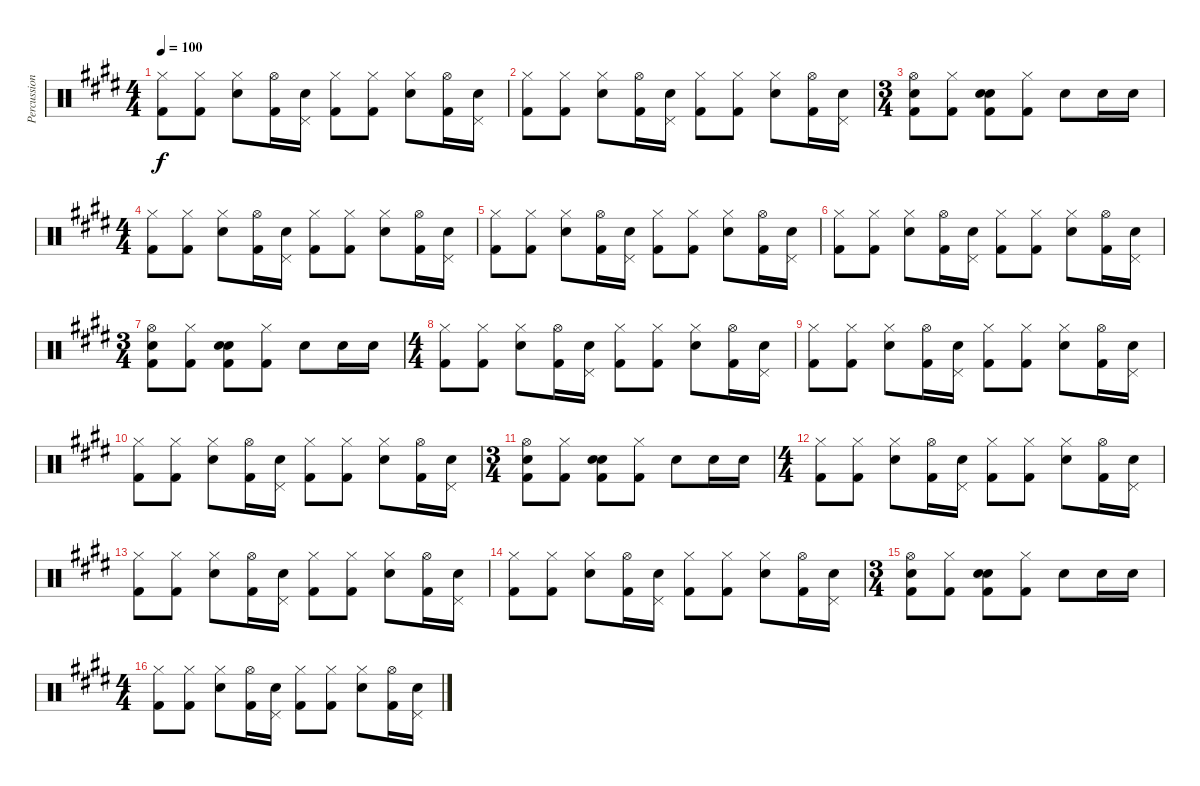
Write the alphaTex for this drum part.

\track ("Percussion" "Percussion") {instrument percussion}
\staff {score}
\articulation defaults
\ts (4 4)
\tempo 100
\clef neutral
\ks e
("Hi-Hat (closed)" "Kick (hit) 2").8{dy f} ("Hi-Hat (closed)" "Kick (hit) 2").8 ("Hi-Hat (closed)" "Electric Snare (hit)").8 ("Hi-Hat (open)" "Kick (hit) 2").16 ("Electric Snare (hit)" "Pedal Hi-Hat (hit)").16 ("Hi-Hat (closed)" "Kick (hit) 2").8 ("Hi-Hat (closed)" "Kick (hit) 2").8 ("Hi-Hat (closed)" "Electric Snare (hit)").8 ("Hi-Hat (open)" "Kick (hit) 2").16 ("Electric Snare (hit)" "Pedal Hi-Hat (hit)").16 |
("Hi-Hat (closed)" "Kick (hit) 2").8 ("Hi-Hat (closed)" "Kick (hit) 2").8 ("Hi-Hat (closed)" "Electric Snare (hit)").8 ("Hi-Hat (open)" "Kick (hit) 2").16 ("Electric Snare (hit)" "Pedal Hi-Hat (hit)").16 ("Hi-Hat (closed)" "Kick (hit) 2").8 ("Hi-Hat (closed)" "Kick (hit) 2").8 ("Hi-Hat (closed)" "Electric Snare (hit)").8 ("Hi-Hat (open)" "Kick (hit) 2").16 ("Electric Snare (hit)" "Pedal Hi-Hat (hit)").16 |
\ts (3 4)
("Hi-Hat (open)" "Electric Snare (hit)" "Kick (hit) 2").8 ("Hi-Hat (closed)" "Kick (hit) 2").8 ("Snare (hit)" "Electric Snare (hit)" "Kick (hit) 2").8 ("Hi-Hat (closed)" "Kick (hit) 2").8 "Electric Snare (hit)".8 "Electric Snare (hit)".16 "Electric Snare (hit)".16 |
\ts (4 4)
("Hi-Hat (closed)" "Kick (hit) 2").8 ("Hi-Hat (closed)" "Kick (hit) 2").8 ("Hi-Hat (closed)" "Electric Snare (hit)").8 ("Hi-Hat (open)" "Kick (hit) 2").16 ("Electric Snare (hit)" "Pedal Hi-Hat (hit)").16 ("Hi-Hat (closed)" "Kick (hit) 2").8 ("Hi-Hat (closed)" "Kick (hit) 2").8 ("Hi-Hat (closed)" "Electric Snare (hit)").8 ("Hi-Hat (open)" "Kick (hit) 2").16 ("Electric Snare (hit)" "Pedal Hi-Hat (hit)").16 |
("Hi-Hat (closed)" "Kick (hit) 2").8 ("Hi-Hat (closed)" "Kick (hit) 2").8 ("Hi-Hat (closed)" "Electric Snare (hit)").8 ("Hi-Hat (open)" "Kick (hit) 2").16 ("Electric Snare (hit)" "Pedal Hi-Hat (hit)").16 ("Hi-Hat (closed)" "Kick (hit) 2").8 ("Hi-Hat (closed)" "Kick (hit) 2").8 ("Hi-Hat (closed)" "Electric Snare (hit)").8 ("Hi-Hat (open)" "Kick (hit) 2").16 ("Electric Snare (hit)" "Pedal Hi-Hat (hit)").16 |
("Hi-Hat (closed)" "Kick (hit) 2").8 ("Hi-Hat (closed)" "Kick (hit) 2").8 ("Hi-Hat (closed)" "Electric Snare (hit)").8 ("Hi-Hat (open)" "Kick (hit) 2").16 ("Electric Snare (hit)" "Pedal Hi-Hat (hit)").16 ("Hi-Hat (closed)" "Kick (hit) 2").8 ("Hi-Hat (closed)" "Kick (hit) 2").8 ("Hi-Hat (closed)" "Electric Snare (hit)").8 ("Hi-Hat (open)" "Kick (hit) 2").16 ("Electric Snare (hit)" "Pedal Hi-Hat (hit)").16 |
\ts (3 4)
("Hi-Hat (open)" "Electric Snare (hit)" "Kick (hit) 2").8 ("Hi-Hat (closed)" "Kick (hit) 2").8 ("Snare (hit)" "Electric Snare (hit)" "Kick (hit) 2").8 ("Hi-Hat (closed)" "Kick (hit) 2").8 "Electric Snare (hit)".8 "Electric Snare (hit)".16 "Electric Snare (hit)".16 |
\ts (4 4)
("Hi-Hat (closed)" "Kick (hit) 2").8 ("Hi-Hat (closed)" "Kick (hit) 2").8 ("Hi-Hat (closed)" "Electric Snare (hit)").8 ("Hi-Hat (open)" "Kick (hit) 2").16 ("Electric Snare (hit)" "Pedal Hi-Hat (hit)").16 ("Hi-Hat (closed)" "Kick (hit) 2").8 ("Hi-Hat (closed)" "Kick (hit) 2").8 ("Hi-Hat (closed)" "Electric Snare (hit)").8 ("Hi-Hat (open)" "Kick (hit) 2").16 ("Electric Snare (hit)" "Pedal Hi-Hat (hit)").16 |
("Hi-Hat (closed)" "Kick (hit) 2").8 ("Hi-Hat (closed)" "Kick (hit) 2").8 ("Hi-Hat (closed)" "Electric Snare (hit)").8 ("Hi-Hat (open)" "Kick (hit) 2").16 ("Electric Snare (hit)" "Pedal Hi-Hat (hit)").16 ("Hi-Hat (closed)" "Kick (hit) 2").8 ("Hi-Hat (closed)" "Kick (hit) 2").8 ("Hi-Hat (closed)" "Electric Snare (hit)").8 ("Hi-Hat (open)" "Kick (hit) 2").16 ("Electric Snare (hit)" "Pedal Hi-Hat (hit)").16 |
("Hi-Hat (closed)" "Kick (hit) 2").8 ("Hi-Hat (closed)" "Kick (hit) 2").8 ("Hi-Hat (closed)" "Electric Snare (hit)").8 ("Hi-Hat (open)" "Kick (hit) 2").16 ("Electric Snare (hit)" "Pedal Hi-Hat (hit)").16 ("Hi-Hat (closed)" "Kick (hit) 2").8 ("Hi-Hat (closed)" "Kick (hit) 2").8 ("Hi-Hat (closed)" "Electric Snare (hit)").8 ("Hi-Hat (open)" "Kick (hit) 2").16 ("Electric Snare (hit)" "Pedal Hi-Hat (hit)").16 |
\ts (3 4)
("Hi-Hat (open)" "Electric Snare (hit)" "Kick (hit) 2").8 ("Hi-Hat (closed)" "Kick (hit) 2").8 ("Snare (hit)" "Electric Snare (hit)" "Kick (hit) 2").8 ("Hi-Hat (closed)" "Kick (hit) 2").8 "Electric Snare (hit)".8 "Electric Snare (hit)".16 "Electric Snare (hit)".16 |
\ts (4 4)
("Hi-Hat (closed)" "Kick (hit) 2").8 ("Hi-Hat (closed)" "Kick (hit) 2").8 ("Hi-Hat (closed)" "Electric Snare (hit)").8 ("Hi-Hat (open)" "Kick (hit) 2").16 ("Electric Snare (hit)" "Pedal Hi-Hat (hit)").16 ("Hi-Hat (closed)" "Kick (hit) 2").8 ("Hi-Hat (closed)" "Kick (hit) 2").8 ("Hi-Hat (closed)" "Electric Snare (hit)").8 ("Hi-Hat (open)" "Kick (hit) 2").16 ("Electric Snare (hit)" "Pedal Hi-Hat (hit)").16 |
("Hi-Hat (closed)" "Kick (hit) 2").8 ("Hi-Hat (closed)" "Kick (hit) 2").8 ("Hi-Hat (closed)" "Electric Snare (hit)").8 ("Hi-Hat (open)" "Kick (hit) 2").16 ("Electric Snare (hit)" "Pedal Hi-Hat (hit)").16 ("Hi-Hat (closed)" "Kick (hit) 2").8 ("Hi-Hat (closed)" "Kick (hit) 2").8 ("Hi-Hat (closed)" "Electric Snare (hit)").8 ("Hi-Hat (open)" "Kick (hit) 2").16 ("Electric Snare (hit)" "Pedal Hi-Hat (hit)").16 |
("Hi-Hat (closed)" "Kick (hit) 2").8 ("Hi-Hat (closed)" "Kick (hit) 2").8 ("Hi-Hat (closed)" "Electric Snare (hit)").8 ("Hi-Hat (open)" "Kick (hit) 2").16 ("Electric Snare (hit)" "Pedal Hi-Hat (hit)").16 ("Hi-Hat (closed)" "Kick (hit) 2").8 ("Hi-Hat (closed)" "Kick (hit) 2").8 ("Hi-Hat (closed)" "Electric Snare (hit)").8 ("Hi-Hat (open)" "Kick (hit) 2").16 ("Electric Snare (hit)" "Pedal Hi-Hat (hit)").16 |
\ts (3 4)
("Hi-Hat (open)" "Electric Snare (hit)" "Kick (hit) 2").8 ("Hi-Hat (closed)" "Kick (hit) 2").8 ("Snare (hit)" "Electric Snare (hit)" "Kick (hit) 2").8 ("Hi-Hat (closed)" "Kick (hit) 2").8 "Electric Snare (hit)".8 "Electric Snare (hit)".16 "Electric Snare (hit)".16 |
\ts (4 4)
("Hi-Hat (closed)" "Kick (hit) 2").8 ("Hi-Hat (closed)" "Kick (hit) 2").8 ("Hi-Hat (closed)" "Electric Snare (hit)").8 ("Hi-Hat (open)" "Kick (hit) 2").16 ("Electric Snare (hit)" "Pedal Hi-Hat (hit)").16 ("Hi-Hat (closed)" "Kick (hit) 2").8 ("Hi-Hat (closed)" "Kick (hit) 2").8 ("Hi-Hat (closed)" "Electric Snare (hit)").8 ("Hi-Hat (open)" "Kick (hit) 2").16 ("Electric Snare (hit)" "Pedal Hi-Hat (hit)").16
